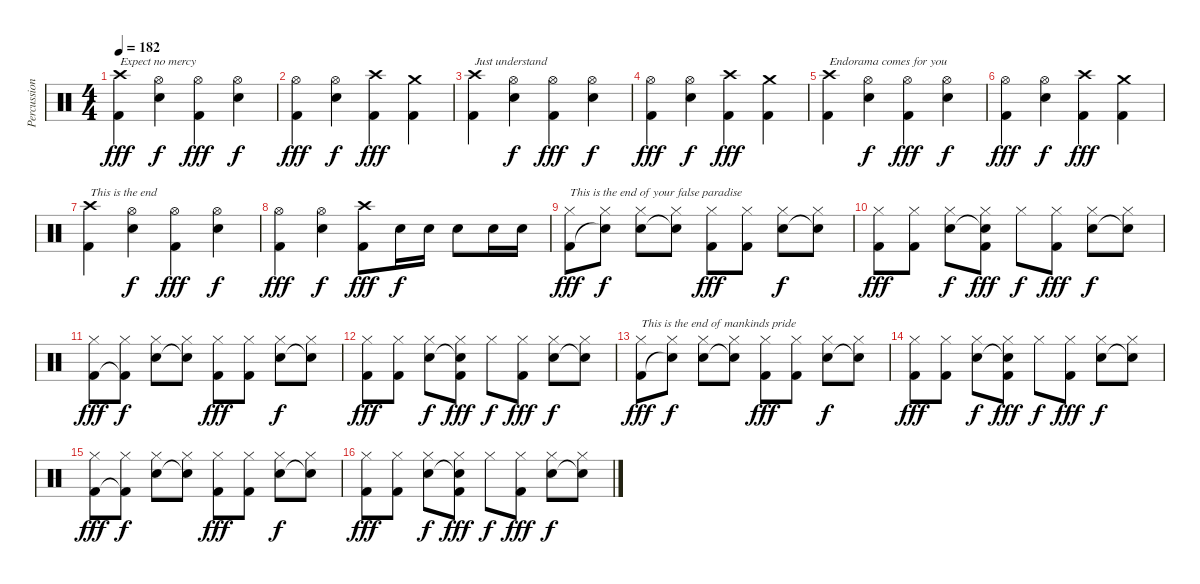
\track ("Percussion" "Percussion") {instrument percussion}
\staff {score}
\articulation defaults
\ts (4 4)
\tempo 182
\clef neutral
\ks c
("Crash high (hit)" "Kick (hit) 2").4{txt "Expect no mercy" dy fff} ("Hi-Hat (open)" "Snare (hit) 2").4{dy f} ("Hi-Hat (open)" "Kick (hit) 2").4{dy fff} ("Hi-Hat (open)" "Snare (hit) 2").4{dy f} |
("Hi-Hat (open)" "Kick (hit) 2").4{dy fff} ("Hi-Hat (open)" "Snare (hit) 2").4{dy f} ("Crash high (hit)" "Kick (hit) 2").4{dy fff} ("Crash medium (hit)" "Kick (hit) 2").4 |
("Crash high (hit)" "Kick (hit) 2").4{txt "Just understand"} ("Hi-Hat (open)" "Snare (hit) 2").4{dy f} ("Hi-Hat (open)" "Kick (hit) 2").4{dy fff} ("Hi-Hat (open)" "Snare (hit) 2").4{dy f} |
("Hi-Hat (open)" "Kick (hit) 2").4{dy fff} ("Hi-Hat (open)" "Snare (hit) 2").4{dy f} ("Crash high (hit)" "Kick (hit) 2").4{dy fff} ("Crash medium (hit)" "Kick (hit) 2").4 |
("Crash high (hit)" "Kick (hit) 2").4{txt "Endorama comes for you"} ("Hi-Hat (open)" "Snare (hit) 2").4{dy f} ("Hi-Hat (open)" "Kick (hit) 2").4{dy fff} ("Hi-Hat (open)" "Snare (hit) 2").4{dy f} |
("Hi-Hat (open)" "Kick (hit) 2").4{dy fff} ("Hi-Hat (open)" "Snare (hit) 2").4{dy f} ("Crash high (hit)" "Kick (hit) 2").4{dy fff} ("Crash medium (hit)" "Kick (hit) 2").4 |
("Crash high (hit)" "Kick (hit) 2").4{txt "This is the end"} ("Hi-Hat (open)" "Snare (hit) 2").4{dy f} ("Hi-Hat (open)" "Kick (hit) 2").4{dy fff} ("Hi-Hat (open)" "Snare (hit) 2").4{dy f} |
("Hi-Hat (open)" "Kick (hit) 2").4{dy fff} ("Hi-Hat (open)" "Snare (hit) 2").4{dy f} ("Crash high (hit)" "Kick (hit) 2").8{dy fff} "Snare (hit) 2".16{dy f} "Snare (hit) 2".16 "Snare (hit) 2".8 "Snare (hit) 2".16 "Snare (hit) 2".16 |
("Hi-Hat (closed)" "Kick (hit) 2").8{txt "This is the end of your false paradise" dy fff} ("Hi-Hat (closed)" "Snare (hit)"{t}).8{dy f} ("Hi-Hat (closed)" "Snare (hit) 2").8 ("Hi-Hat (closed)" "Snare (hit)"{t}).8 ("Hi-Hat (closed)" "Kick (hit) 2").8{dy fff} ("Hi-Hat (closed)" "Kick (hit) 2").8 ("Hi-Hat (closed)" "Snare (hit) 2").8{dy f} ("Hi-Hat (closed)" "Snare (hit)"{t}).8 |
("Hi-Hat (closed)" "Kick (hit) 2").8{dy fff} ("Hi-Hat (closed)" "Kick (hit) 2").8 ("Hi-Hat (closed)" "Snare (hit) 2").8{dy f} ("Hi-Hat (closed)" "Snare (hit)"{t} "Kick (hit) 2").8{dy fff} "Hi-Hat (closed)".8{dy f} ("Hi-Hat (closed)" "Kick (hit) 2").8{dy fff} ("Hi-Hat (closed)" "Snare (hit) 2").8{dy f} ("Hi-Hat (closed)" "Snare (hit)"{t}).8 |
("Hi-Hat (closed)" "Kick (hit) 2").8{dy fff} ("Hi-Hat (closed)" "Kick (hit) 2"{t}).8{dy f} ("Hi-Hat (closed)" "Snare (hit) 2").8 ("Hi-Hat (closed)" "Snare (hit)"{t}).8 ("Hi-Hat (closed)" "Kick (hit) 2").8{dy fff} ("Hi-Hat (closed)" "Kick (hit) 2").8 ("Hi-Hat (closed)" "Snare (hit) 2").8{dy f} ("Hi-Hat (closed)" "Snare (hit)"{t}).8 |
("Hi-Hat (closed)" "Kick (hit) 2").8{dy fff} ("Hi-Hat (closed)" "Kick (hit) 2").8 ("Hi-Hat (closed)" "Snare (hit) 2").8{dy f} ("Hi-Hat (closed)" "Snare (hit)"{t} "Kick (hit) 2").8{dy fff} "Hi-Hat (closed)".8{dy f} ("Hi-Hat (closed)" "Kick (hit) 2").8{dy fff} ("Hi-Hat (closed)" "Snare (hit) 2").8{dy f} ("Hi-Hat (closed)" "Snare (hit)"{t}).8 |
("Hi-Hat (closed)" "Kick (hit) 2").8{txt "This is the end of mankinds pride" dy fff} ("Hi-Hat (closed)" "Snare (hit)"{t}).8{dy f} ("Hi-Hat (closed)" "Snare (hit) 2").8 ("Hi-Hat (closed)" "Snare (hit)"{t}).8 ("Hi-Hat (closed)" "Kick (hit) 2").8{dy fff} ("Hi-Hat (closed)" "Kick (hit) 2").8 ("Hi-Hat (closed)" "Snare (hit) 2").8{dy f} ("Hi-Hat (closed)" "Snare (hit)"{t}).8 |
("Hi-Hat (closed)" "Kick (hit) 2").8{dy fff} ("Hi-Hat (closed)" "Kick (hit) 2").8 ("Hi-Hat (closed)" "Snare (hit) 2").8{dy f} ("Hi-Hat (closed)" "Snare (hit)"{t} "Kick (hit) 2").8{dy fff} "Hi-Hat (closed)".8{dy f} ("Hi-Hat (closed)" "Kick (hit) 2").8{dy fff} ("Hi-Hat (closed)" "Snare (hit) 2").8{dy f} ("Hi-Hat (closed)" "Snare (hit)"{t}).8 |
("Hi-Hat (closed)" "Kick (hit) 2").8{dy fff} ("Hi-Hat (closed)" "Kick (hit) 2"{t}).8{dy f} ("Hi-Hat (closed)" "Snare (hit) 2").8 ("Hi-Hat (closed)" "Snare (hit)"{t}).8 ("Hi-Hat (closed)" "Kick (hit) 2").8{dy fff} ("Hi-Hat (closed)" "Kick (hit) 2").8 ("Hi-Hat (closed)" "Snare (hit) 2").8{dy f} ("Hi-Hat (closed)" "Snare (hit)"{t}).8 |
("Hi-Hat (closed)" "Kick (hit) 2").8{dy fff} ("Hi-Hat (closed)" "Kick (hit) 2").8 ("Hi-Hat (closed)" "Snare (hit) 2").8{dy f} ("Hi-Hat (closed)" "Snare (hit)"{t} "Kick (hit) 2").8{dy fff} "Hi-Hat (closed)".8{dy f} ("Hi-Hat (closed)" "Kick (hit) 2").8{dy fff} ("Hi-Hat (closed)" "Snare (hit) 2").8{dy f} ("Hi-Hat (closed)" "Snare (hit)"{t}).8
